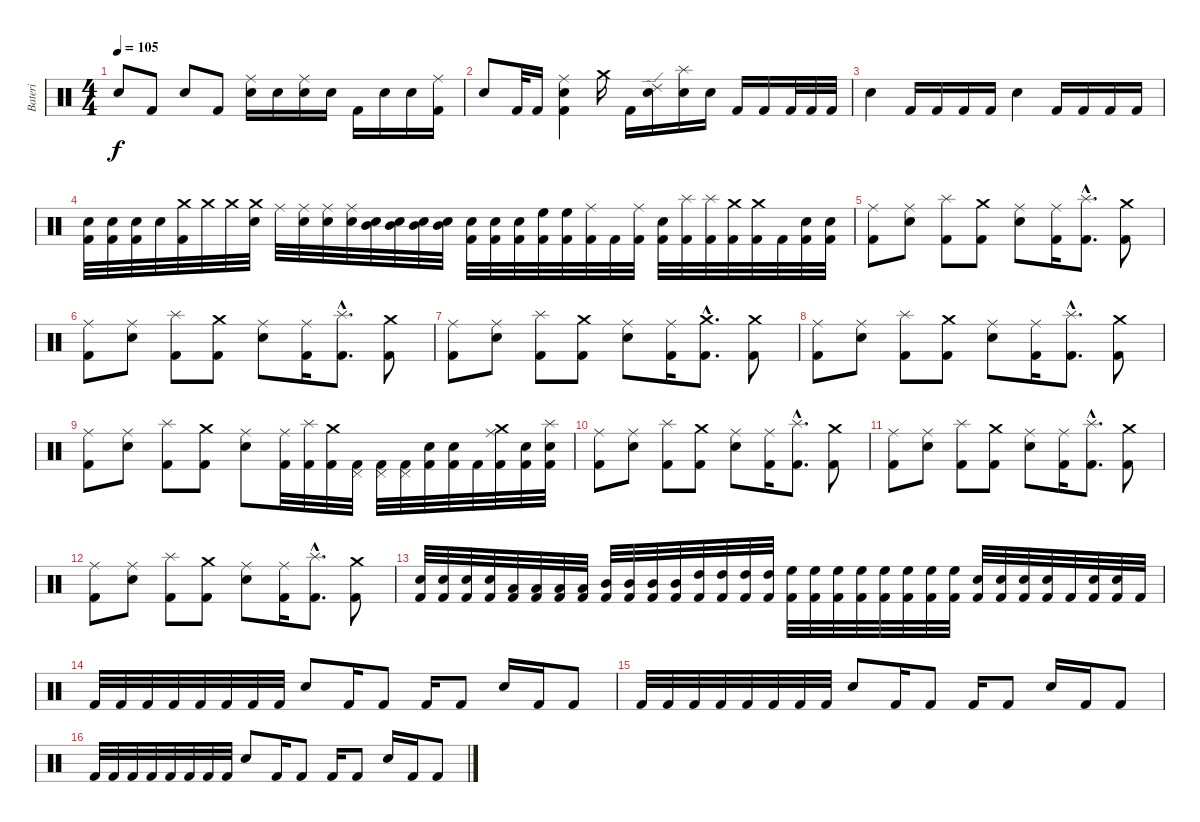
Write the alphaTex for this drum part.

\track ("Bateri" "Bateri") {instrument percussion}
\staff {score}
\articulation defaults
\ts (4 4)
\tempo 105
\clef neutral
\ks c "Electric Snare (hit)".8{dy f} "Kick (hit) 2".8 "Electric Snare (hit)".8 "Kick (hit) 2".8
("Ride (middle)" "Electric Snare (hit)").16 "Electric Snare (hit)".16 ("Ride (middle)" "Electric Snare (hit)").16 "Electric Snare (hit)".16 "Kick (hit) 2".16 "Electric Snare (hit)".16 "Electric Snare (hit)".16 ("Ride (middle)" "Kick (hit) 2").16 |
"Electric Snare (hit)".8 "Kick (hit) 2".32 "Kick (hit) 2".16 ("Electric Snare (hit)" "Kick (hit) 2" "Ride (middle)").4 "Crash medium (hit)".16 "Kick (hit) 2".16 ("Electric Snare (hit)" "Ride (edge) 2").16 ("Electric Snare (hit)" "Splash (hit)").16 "Electric Snare (hit)".16 "Kick (hit) 2".16 "Kick (hit) 2".16 "Kick (hit) 2".32 "Kick (hit) 2".32 "Kick (hit) 2".32 |
"Electric Snare (hit)".4 "Kick (hit) 2".16 "Kick (hit) 2".16 "Kick (hit) 2".16 "Kick (hit) 2".16 "Electric Snare (hit)".4 "Kick (hit) 2".16 "Kick (hit) 2".16 "Kick (hit) 2".16 "Kick (hit) 2".16 |
("Electric Snare (hit)" "Kick (hit) 2").32 ("Electric Snare (hit)" "Kick (hit) 2").32 ("Electric Snare (hit)" "Kick (hit) 2").32 "Electric Snare (hit)".32 ("Crash medium (hit)" "Kick (hit) 2").32 "Crash medium (hit)".32 "Crash medium (hit)".32 ("Crash medium (hit)" "Electric Snare (hit)").32 "Ride (middle)".32 ("Electric Snare (hit)" "Ride (middle)").32 ("Electric Snare (hit)" "Ride (middle)").32 ("Electric Snare (hit)" "Ride (middle)").32 ("Mid Tom (hit)" "Electric Snare (hit)").32 ("Mid Tom (hit)" "Electric Snare (hit)").32 ("Mid Tom (hit)" "Electric Snare (hit)").32 ("Mid Tom (hit)" "Electric Snare (hit)").32 ("Electric Snare (hit)" "Kick (hit) 2").32 ("Electric Snare (hit)" "Kick (hit) 2").32 ("Electric Snare (hit)" "Kick (hit) 2").32 ("High Floor Tom (hit)" "Kick (hit) 2").32 ("High Floor Tom (hit)" "Kick (hit) 2").32 ("Ride (middle)" "Kick (hit) 2").32 "Kick (hit) 2".32 ("Ride (middle)" "Kick (hit) 2").32 ("Snare (hit)" "Kick (hit) 2").32 ("Splash (hit)" "Kick (hit) 2").32 ("Splash (hit)" "Kick (hit) 2").32 ("Crash medium (hit)" "Kick (hit) 2").32 ("Crash medium (hit)" "Kick (hit) 2").32 "Kick (hit) 2".32 ("Electric Snare (hit)" "Kick (hit) 2").32 ("Electric Snare (hit)" "Kick (hit) 2").32 |
("Ride (middle)" "Kick (hit) 2").8 ("Ride (middle)" "Electric Snare (hit)").8 ("Splash (hit)" "Kick (hit) 2").8 ("Crash medium (hit)" "Kick (hit) 2").8 ("Ride (middle)" "Electric Snare (hit)").8 ("Ride (middle)" "Kick (hit) 2").16 ("Splash (hit)"{hac} "Kick (hit) 2"{hac}).8{d} ("Crash medium (hit)" "Kick (hit) 2").8 |
("Ride (middle)" "Kick (hit) 2").8 ("Ride (middle)" "Electric Snare (hit)").8 ("Splash (hit)" "Kick (hit) 2").8 ("Crash medium (hit)" "Kick (hit) 2").8 ("Ride (middle)" "Electric Snare (hit)").8 ("Ride (middle)" "Kick (hit) 2").16 ("Splash (hit)"{hac} "Kick (hit) 2"{hac}).8{d} ("Crash medium (hit)" "Kick (hit) 2").8 |
("Ride (middle)" "Kick (hit) 2").8 ("Ride (middle)" "Electric Snare (hit)").8 ("Splash (hit)" "Kick (hit) 2").8 ("Crash medium (hit)" "Kick (hit) 2").8 ("Ride (middle)" "Electric Snare (hit)").8 ("Ride (middle)" "Kick (hit) 2").16 ("Crash medium (hit)"{hac} "Kick (hit) 2"{hac}).8{d} ("Crash medium (hit)" "Kick (hit) 2").8 |
("Ride (middle)" "Kick (hit) 2").8 ("Ride (middle)" "Electric Snare (hit)").8 ("Splash (hit)" "Kick (hit) 2").8 ("Crash medium (hit)" "Kick (hit) 2").8 ("Ride (middle)" "Electric Snare (hit)").8 ("Ride (middle)" "Kick (hit) 2").16 ("Splash (hit)"{hac} "Kick (hit) 2"{hac}).8{d} ("Crash medium (hit)" "Kick (hit) 2").8 |
("Ride (middle)" "Kick (hit) 2").8 ("Ride (middle)" "Electric Snare (hit)").8 ("Splash (hit)" "Kick (hit) 2").8 ("Crash medium (hit)" "Kick (hit) 2").8 ("Ride (middle)" "Electric Snare (hit)").8 ("Ride (middle)" "Kick (hit) 2").32 ("Splash (hit)" "Kick (hit) 2").32 ("Crash medium (hit)" "Kick (hit) 2").32 ("Pedal Hi-Hat (hit)" "Kick (hit) 2").32 ("Pedal Hi-Hat (hit)" "Kick (hit) 2").32 ("Pedal Hi-Hat (hit)" "Kick (hit) 2").32 ("Electric Snare (hit)" "Kick (hit) 2").32 ("Electric Snare (hit)" "Kick (hit) 2").32 "Kick (hit) 2".32 ("Crash medium (hit)" "Ride (middle)" "Kick (hit) 2").32 ("Electric Snare (hit)" "Kick (hit) 2").32 ("Electric Snare (hit)" "Splash (hit)" "Kick (hit) 2").32 |
("Ride (middle)" "Kick (hit) 2").8 ("Ride (middle)" "Electric Snare (hit)").8 ("Splash (hit)" "Kick (hit) 2").8 ("Crash medium (hit)" "Kick (hit) 2").8 ("Ride (middle)" "Electric Snare (hit)").8 ("Ride (middle)" "Kick (hit) 2").16 ("Splash (hit)"{hac} "Kick (hit) 2"{hac}).8{d} ("Crash medium (hit)" "Kick (hit) 2").8 |
("Ride (middle)" "Kick (hit) 2").8 ("Ride (middle)" "Electric Snare (hit)").8 ("Splash (hit)" "Kick (hit) 2").8 ("Crash medium (hit)" "Kick (hit) 2").8 ("Ride (middle)" "Electric Snare (hit)").8 ("Ride (middle)" "Kick (hit) 2").16 ("Splash (hit)"{hac} "Kick (hit) 2"{hac}).8{d} ("Crash medium (hit)" "Kick (hit) 2").8 |
("Ride (middle)" "Kick (hit) 2").8 ("Ride (middle)" "Electric Snare (hit)").8 ("Splash (hit)" "Kick (hit) 2").8 ("Crash medium (hit)" "Kick (hit) 2").8 ("Ride (middle)" "Electric Snare (hit)").8 ("Ride (middle)" "Kick (hit) 2").16 ("Splash (hit)"{hac} "Kick (hit) 2"{hac}).8{d} ("Crash medium (hit)" "Kick (hit) 2").8 |
("Electric Snare (hit)" "Kick (hit) 2").32 ("Electric Snare (hit)" "Kick (hit) 2").32 ("Electric Snare (hit)" "Kick (hit) 2").32 ("Electric Snare (hit)" "Kick (hit) 2").32 ("Low Tom (hit)" "Kick (hit) 2").32 ("Low Tom (hit)" "Kick (hit) 2").32 ("Low Tom (hit)" "Kick (hit) 2").32 ("Low Tom (hit)" "Kick (hit) 2").32 ("Mid Tom (hit)" "Kick (hit) 2").32 ("Mid Tom (hit)" "Kick (hit) 2").32 ("Mid Tom (hit)" "Kick (hit) 2").32 ("Mid Tom (hit)" "Kick (hit) 2").32 ("High Tom (hit)" "Kick (hit) 2").32 ("High Tom (hit)" "Kick (hit) 2").32 ("High Tom (hit)" "Kick (hit) 2").32 ("High Tom (hit)" "Kick (hit) 2").32 ("High Floor Tom (hit)" "Kick (hit) 2").32 ("High Floor Tom (hit)" "Kick (hit) 2").32 ("High Floor Tom (hit)" "Kick (hit) 2").32 ("High Floor Tom (hit)" "Kick (hit) 2").32 ("High Floor Tom (hit)" "Kick (hit) 2").32 ("High Floor Tom (hit)" "Kick (hit) 2").32 ("High Floor Tom (hit)" "Kick (hit) 2").32 ("High Floor Tom (hit)" "Kick (hit) 2").32 ("Electric Snare (hit)" "Kick (hit) 2").32 ("Electric Snare (hit)" "Kick (hit) 2").32 ("Electric Snare (hit)" "Kick (hit) 2").32 ("Electric Snare (hit)" "Kick (hit) 2").32 "Kick (hit) 2".32 ("Electric Snare (hit)" "Kick (hit) 2").32 ("Electric Snare (hit)" "Kick (hit) 2").32 "Kick (hit) 2".32 |
"Kick (hit) 2".32 "Kick (hit) 2".32 "Kick (hit) 2".32 "Kick (hit) 2".32 "Kick (hit) 2".32 "Kick (hit) 2".32 "Kick (hit) 2".32 "Kick (hit) 2".32 "Electric Snare (hit)".8 "Kick (hit) 2".16 "Kick (hit) 2".8 "Kick (hit) 2".16 "Kick (hit) 2".8 "Electric Snare (hit)".16 "Kick (hit) 2".16 "Kick (hit) 2".8 |
"Kick (hit) 2".32 "Kick (hit) 2".32 "Kick (hit) 2".32 "Kick (hit) 2".32 "Kick (hit) 2".32 "Kick (hit) 2".32 "Kick (hit) 2".32 "Kick (hit) 2".32 "Electric Snare (hit)".8 "Kick (hit) 2".16 "Kick (hit) 2".8 "Kick (hit) 2".16 "Kick (hit) 2".8 "Electric Snare (hit)".16 "Kick (hit) 2".16 "Kick (hit) 2".8 |
"Kick (hit) 2".32 "Kick (hit) 2".32 "Kick (hit) 2".32 "Kick (hit) 2".32 "Kick (hit) 2".32 "Kick (hit) 2".32 "Kick (hit) 2".32 "Kick (hit) 2".32 "Electric Snare (hit)".8 "Kick (hit) 2".16 "Kick (hit) 2".8 "Kick (hit) 2".16 "Kick (hit) 2".8 "Electric Snare (hit)".16 "Kick (hit) 2".16 "Kick (hit) 2".8
